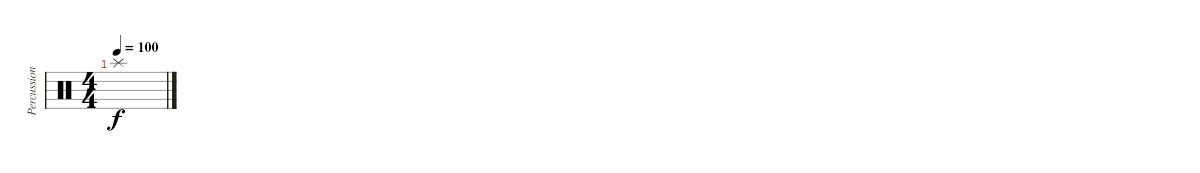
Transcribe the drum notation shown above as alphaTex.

\track ("Percussion" "Percussion") {instrument percussion}
\staff {score}
\articulation defaults
\ts (4 4)
\tempo 100
\clef neutral
\ks c "Splash (hit)".1{dy f}
